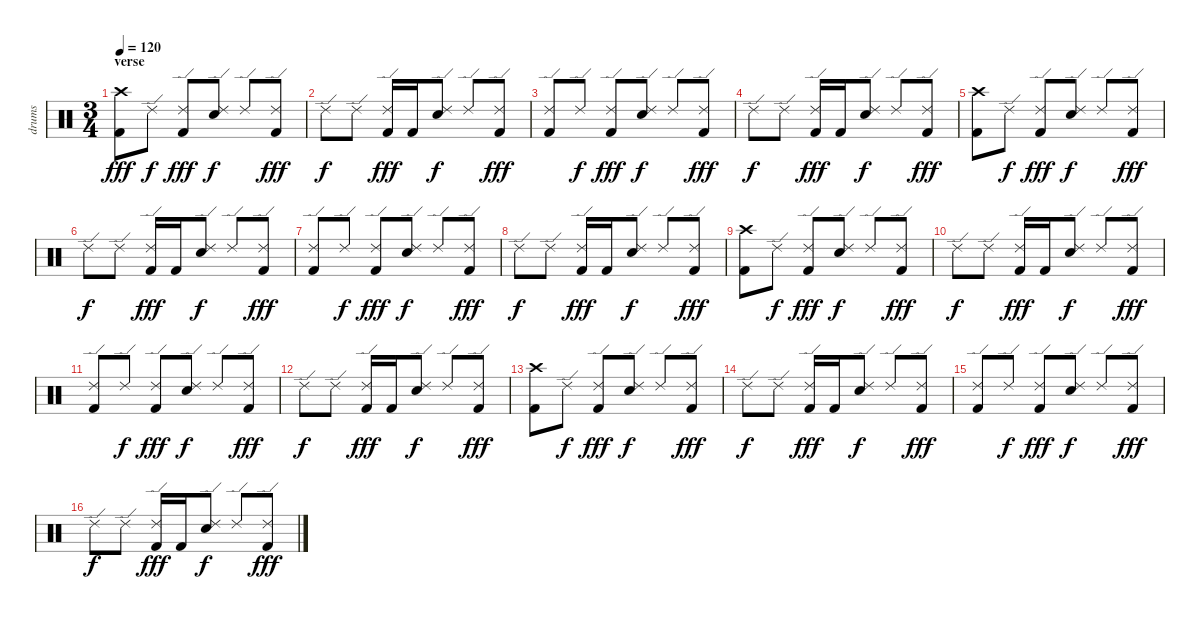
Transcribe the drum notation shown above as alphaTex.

\track ("drums" "drums") {instrument percussion}
\staff {score}
\articulation defaults
\ts (3 4)
\section ("" "verse")
\tempo 120
\clef neutral
\ks c
("Crash high (hit)" "Kick (hit) 2").8{dy fff} "Ride (edge) 2".8{dy f} ("Ride (edge) 2" "Kick (hit) 2").8{dy fff} ("Ride (edge) 2" "Snare (hit) 2").8{dy f} "Ride (edge) 2".8 ("Ride (edge) 2" "Kick (hit) 2").8{dy fff} |
"Ride (edge) 2".8{dy f} "Ride (edge) 2".8 ("Ride (edge) 2" "Kick (hit) 2").16{dy fff} "Kick (hit) 2".16 ("Ride (edge) 2" "Snare (hit) 2").8{dy f} "Ride (edge) 2".8 ("Ride (edge) 2" "Kick (hit) 2").8{dy fff} |
("Ride (edge) 2" "Kick (hit) 2").8 "Ride (edge) 2".8{dy f} ("Ride (edge) 2" "Kick (hit) 2").8{dy fff} ("Ride (edge) 2" "Snare (hit) 2").8{dy f} "Ride (edge) 2".8 ("Ride (edge) 2" "Kick (hit) 2").8{dy fff} |
"Ride (edge) 2".8{dy f} "Ride (edge) 2".8 ("Ride (edge) 2" "Kick (hit) 2").16{dy fff} "Kick (hit) 2".16 ("Ride (edge) 2" "Snare (hit) 2").8{dy f} "Ride (edge) 2".8 ("Ride (edge) 2" "Kick (hit) 2").8{dy fff} |
("Crash high (hit)" "Kick (hit) 2").8 "Ride (edge) 2".8{dy f} ("Ride (edge) 2" "Kick (hit) 2").8{dy fff} ("Ride (edge) 2" "Snare (hit) 2").8{dy f} "Ride (edge) 2".8 ("Ride (edge) 2" "Kick (hit) 2").8{dy fff} |
"Ride (edge) 2".8{dy f} "Ride (edge) 2".8 ("Ride (edge) 2" "Kick (hit) 2").16{dy fff} "Kick (hit) 2".16 ("Ride (edge) 2" "Snare (hit) 2").8{dy f} "Ride (edge) 2".8 ("Ride (edge) 2" "Kick (hit) 2").8{dy fff} |
("Ride (edge) 2" "Kick (hit) 2").8 "Ride (edge) 2".8{dy f} ("Ride (edge) 2" "Kick (hit) 2").8{dy fff} ("Ride (edge) 2" "Snare (hit) 2").8{dy f} "Ride (edge) 2".8 ("Ride (edge) 2" "Kick (hit) 2").8{dy fff} |
"Ride (edge) 2".8{dy f} "Ride (edge) 2".8 ("Ride (edge) 2" "Kick (hit) 2").16{dy fff} "Kick (hit) 2".16 ("Ride (edge) 2" "Snare (hit) 2").8{dy f} "Ride (edge) 2".8 ("Ride (edge) 2" "Kick (hit) 2").8{dy fff} |
("Crash high (hit)" "Kick (hit) 2").8 "Ride (edge) 2".8{dy f} ("Ride (edge) 2" "Kick (hit) 2").8{dy fff} ("Ride (edge) 2" "Snare (hit) 2").8{dy f} "Ride (edge) 2".8 ("Ride (edge) 2" "Kick (hit) 2").8{dy fff} |
"Ride (edge) 2".8{dy f} "Ride (edge) 2".8 ("Ride (edge) 2" "Kick (hit) 2").16{dy fff} "Kick (hit) 2".16 ("Ride (edge) 2" "Snare (hit) 2").8{dy f} "Ride (edge) 2".8 ("Ride (edge) 2" "Kick (hit) 2").8{dy fff} |
("Ride (edge) 2" "Kick (hit) 2").8 "Ride (edge) 2".8{dy f} ("Ride (edge) 2" "Kick (hit) 2").8{dy fff} ("Ride (edge) 2" "Snare (hit) 2").8{dy f} "Ride (edge) 2".8 ("Ride (edge) 2" "Kick (hit) 2").8{dy fff} |
"Ride (edge) 2".8{dy f} "Ride (edge) 2".8 ("Ride (edge) 2" "Kick (hit) 2").16{dy fff} "Kick (hit) 2".16 ("Ride (edge) 2" "Snare (hit) 2").8{dy f} "Ride (edge) 2".8 ("Ride (edge) 2" "Kick (hit) 2").8{dy fff} |
("Crash high (hit)" "Kick (hit) 2").8 "Ride (edge) 2".8{dy f} ("Ride (edge) 2" "Kick (hit) 2").8{dy fff} ("Ride (edge) 2" "Snare (hit) 2").8{dy f} "Ride (edge) 2".8 ("Ride (edge) 2" "Kick (hit) 2").8{dy fff} |
"Ride (edge) 2".8{dy f} "Ride (edge) 2".8 ("Ride (edge) 2" "Kick (hit) 2").16{dy fff} "Kick (hit) 2".16 ("Ride (edge) 2" "Snare (hit) 2").8{dy f} "Ride (edge) 2".8 ("Ride (edge) 2" "Kick (hit) 2").8{dy fff} |
("Ride (edge) 2" "Kick (hit) 2").8 "Ride (edge) 2".8{dy f} ("Ride (edge) 2" "Kick (hit) 2").8{dy fff} ("Ride (edge) 2" "Snare (hit) 2").8{dy f} "Ride (edge) 2".8 ("Ride (edge) 2" "Kick (hit) 2").8{dy fff} |
"Ride (edge) 2".8{dy f} "Ride (edge) 2".8 ("Ride (edge) 2" "Kick (hit) 2").16{dy fff} "Kick (hit) 2".16 ("Ride (edge) 2" "Snare (hit) 2").8{dy f} "Ride (edge) 2".8 ("Ride (edge) 2" "Kick (hit) 2").8{dy fff}
